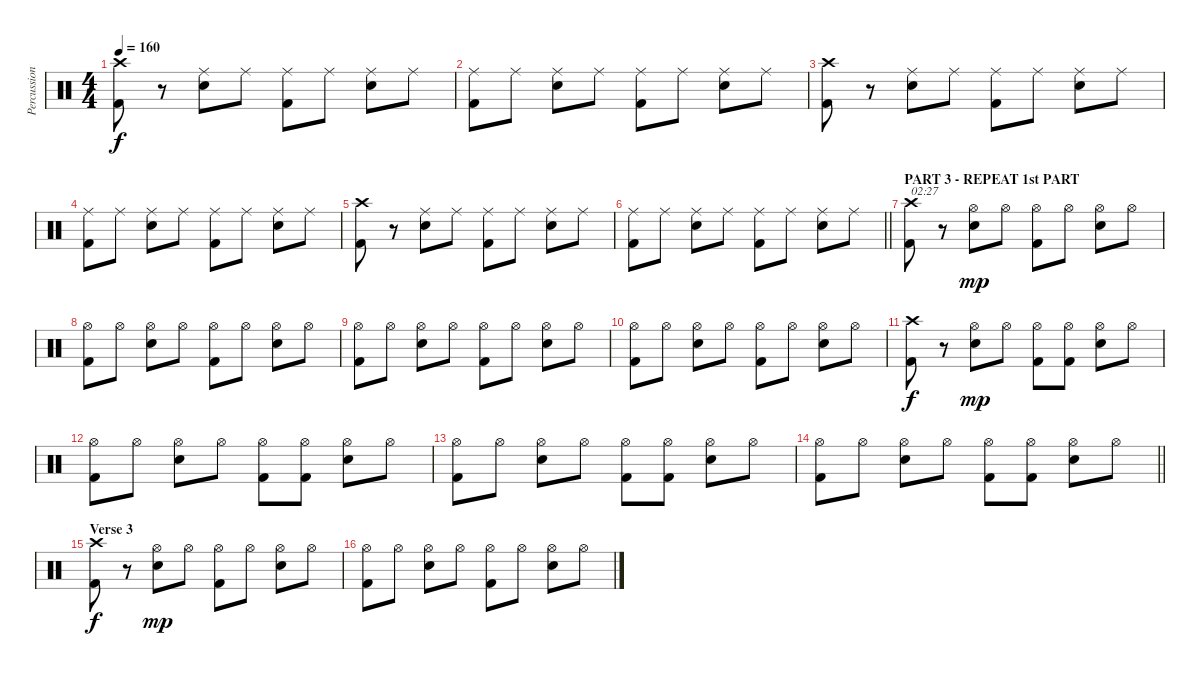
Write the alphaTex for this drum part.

\track ("Percussion - live 1983" "Percussion") {mute instrument percussion}
\staff {score}
\articulation defaults
\ts (4 4)
\tempo 160
\clef neutral
\ks c
("Crash high (hit)" "Kick (hit) 2").8{dy f} r.8 ("Ride (middle)" "Snare (hit) 2").8 "Ride (middle)".8 ("Ride (middle)" "Kick (hit) 2").8 "Ride (middle)".8 ("Ride (middle)" "Snare (hit) 2").8 "Ride (middle)".8 |
("Ride (middle)" "Kick (hit) 2").8 "Ride (middle)".8 ("Ride (middle)" "Snare (hit) 2").8 "Ride (middle)".8 ("Ride (middle)" "Kick (hit) 2").8 "Ride (middle)".8 ("Ride (middle)" "Snare (hit) 2").8 "Ride (middle)".8 |
("Crash high (hit)" "Kick (hit) 2").8 r.8 ("Ride (middle)" "Snare (hit) 2").8 "Ride (middle)".8 ("Ride (middle)" "Kick (hit) 2").8 "Ride (middle)".8 ("Ride (middle)" "Snare (hit) 2").8 "Ride (middle)".8 |
("Ride (middle)" "Kick (hit) 2").8 "Ride (middle)".8 ("Ride (middle)" "Snare (hit) 2").8 "Ride (middle)".8 ("Ride (middle)" "Kick (hit) 2").8 "Ride (middle)".8 ("Ride (middle)" "Snare (hit) 2").8 "Ride (middle)".8 |
("Crash high (hit)" "Kick (hit) 2").8 r.8 ("Ride (middle)" "Snare (hit) 2").8 "Ride (middle)".8 ("Ride (middle)" "Kick (hit) 2").8 "Ride (middle)".8 ("Ride (middle)" "Snare (hit) 2").8 "Ride (middle)".8 |
\barLineRight lightlight
("Ride (middle)" "Kick (hit) 2").8 "Ride (middle)".8 ("Ride (middle)" "Snare (hit) 2").8 "Ride (middle)".8 ("Ride (middle)" "Kick (hit) 2").8 "Ride (middle)".8 ("Ride (middle)" "Snare (hit) 2").8 "Ride (middle)".8 |
\section ("" "PART 3 - REPEAT 1st PART")
("Crash high (hit)" "Kick (hit) 2").8{txt "02:27"} r.8 ("Hi-Hat (open)" "Snare (hit) 2").8{dy mp} "Hi-Hat (open)".8 ("Hi-Hat (open)" "Kick (hit) 2").8 "Hi-Hat (open)".8 ("Hi-Hat (open)" "Snare (hit) 2").8 "Hi-Hat (open)".8 |
("Hi-Hat (open)" "Kick (hit) 2").8 "Hi-Hat (open)".8 ("Hi-Hat (open)" "Snare (hit) 2").8 "Hi-Hat (open)".8 ("Hi-Hat (open)" "Kick (hit) 2").8 "Hi-Hat (open)".8 ("Hi-Hat (open)" "Snare (hit) 2").8 "Hi-Hat (open)".8 |
("Hi-Hat (open)" "Kick (hit) 2").8 "Hi-Hat (open)".8 ("Hi-Hat (open)" "Snare (hit) 2").8 "Hi-Hat (open)".8 ("Hi-Hat (open)" "Kick (hit) 2").8 "Hi-Hat (open)".8 ("Hi-Hat (open)" "Snare (hit) 2").8 "Hi-Hat (open)".8 |
("Hi-Hat (open)" "Kick (hit) 2").8 "Hi-Hat (open)".8 ("Hi-Hat (open)" "Snare (hit) 2").8 "Hi-Hat (open)".8 ("Hi-Hat (open)" "Kick (hit) 2").8 "Hi-Hat (open)".8 ("Hi-Hat (open)" "Snare (hit) 2").8 "Hi-Hat (open)".8 |
("Crash high (hit)" "Kick (hit) 2").8{dy f} r.8 ("Hi-Hat (open)" "Snare (hit) 2").8{dy mp} "Hi-Hat (open)".8 ("Hi-Hat (open)" "Kick (hit) 2").8 ("Hi-Hat (open)" "Kick (hit) 2").8 ("Hi-Hat (open)" "Snare (hit) 2").8 "Hi-Hat (open)".8 |
("Hi-Hat (open)" "Kick (hit) 2").8 "Hi-Hat (open)".8 ("Hi-Hat (open)" "Snare (hit) 2").8 "Hi-Hat (open)".8 ("Hi-Hat (open)" "Kick (hit) 2").8 ("Hi-Hat (open)" "Kick (hit) 2").8 ("Hi-Hat (open)" "Snare (hit) 2").8 "Hi-Hat (open)".8 |
("Hi-Hat (open)" "Kick (hit) 2").8 "Hi-Hat (open)".8 ("Hi-Hat (open)" "Snare (hit) 2").8 "Hi-Hat (open)".8 ("Hi-Hat (open)" "Kick (hit) 2").8 ("Hi-Hat (open)" "Kick (hit) 2").8 ("Hi-Hat (open)" "Snare (hit) 2").8 "Hi-Hat (open)".8 |
\barLineRight lightlight
("Hi-Hat (open)" "Kick (hit) 2").8 "Hi-Hat (open)".8 ("Hi-Hat (open)" "Snare (hit) 2").8 "Hi-Hat (open)".8 ("Hi-Hat (open)" "Kick (hit) 2").8 ("Hi-Hat (open)" "Kick (hit) 2").8 ("Hi-Hat (open)" "Snare (hit) 2").8 "Hi-Hat (open)".8 |
\section ("" "Verse 3")
("Crash high (hit)" "Kick (hit) 2").8{dy f} r.8 ("Hi-Hat (open)" "Snare (hit) 2").8{dy mp} "Hi-Hat (open)".8 ("Hi-Hat (open)" "Kick (hit) 2").8 "Hi-Hat (open)".8 ("Hi-Hat (open)" "Snare (hit) 2").8 "Hi-Hat (open)".8 |
("Hi-Hat (open)" "Kick (hit) 2").8 "Hi-Hat (open)".8 ("Hi-Hat (open)" "Snare (hit) 2").8 "Hi-Hat (open)".8 ("Hi-Hat (open)" "Kick (hit) 2").8 "Hi-Hat (open)".8 ("Hi-Hat (open)" "Snare (hit) 2").8 "Hi-Hat (open)".8
